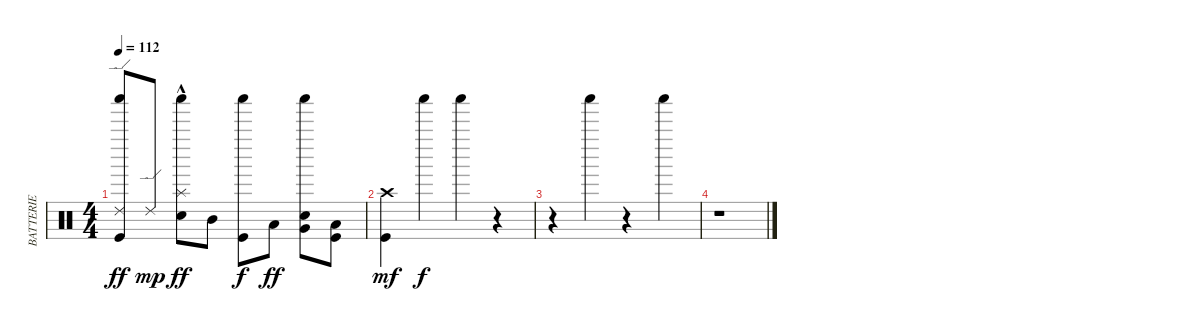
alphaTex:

\track ("BATTERIE" "BATTERIE") {instrument percussion}
\staff {score}
\articulation defaults
\ts (4 4)
\tempo 112
\clef neutral
\ks c
("Kick (hit)" "Shaker (hit)" "Ride (edge) 2").8{dy ff} "Ride (edge) 2".8{dy mp} ("Splash (hit)" "Snare (hit) 2"{hac} "Shaker (hit)").8{dy ff} "Mid Tom (hit)".8 ("Kick (hit)" "Shaker (hit)").8{dy f} "Low Tom (hit)".8{dy ff} ("Very Low Tom (hit)" "Snare (hit) 2" "Shaker (hit)").8 ("Kick (hit)" "Low Floor Tom (hit)").8 |
("Crash high (hit)" "Kick (hit)").4{dy mf} "Shaker (hit)".4{dy f} "Shaker (hit)".4 r.4 |
r.4 "Shaker (hit)".4 r.4 "Shaker (hit)".4 |
r.1
